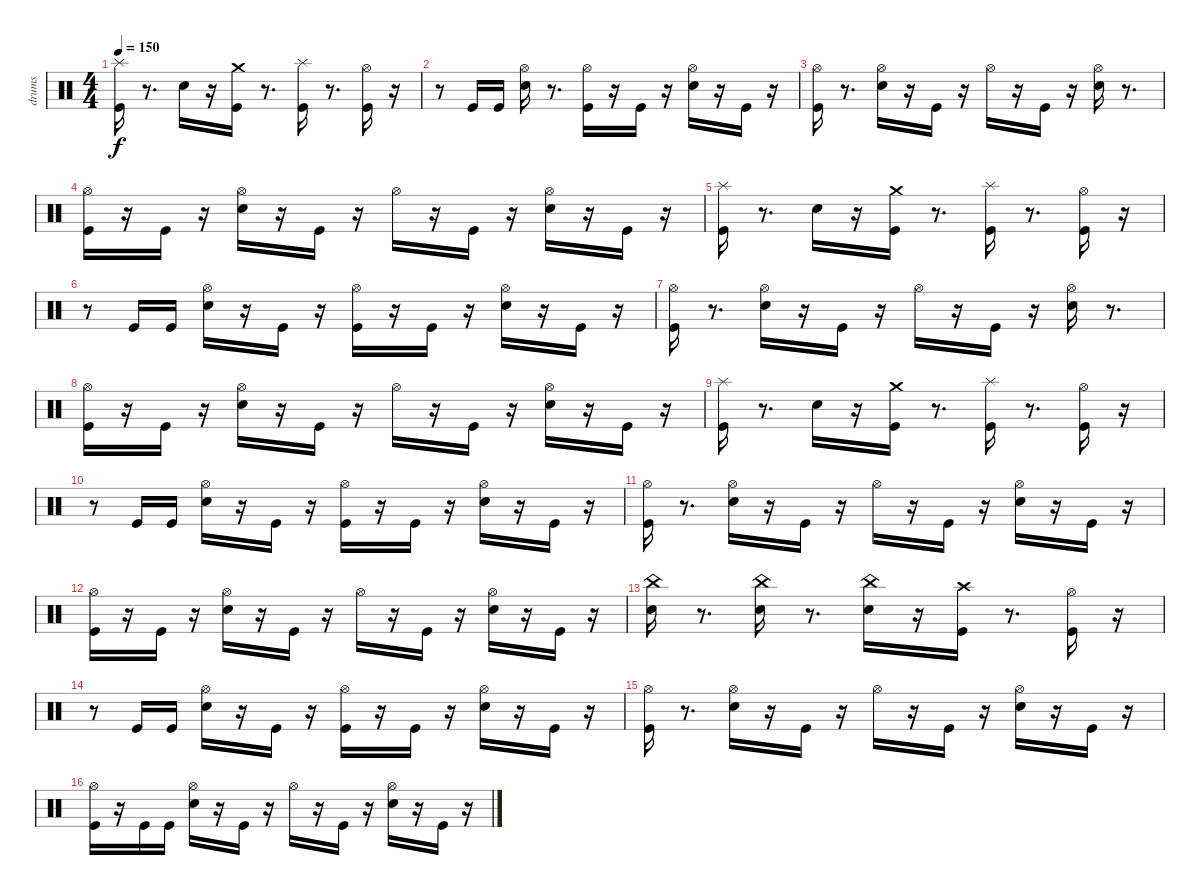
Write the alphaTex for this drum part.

\track ("drums" "drums") {instrument percussion}
\staff {score}
\articulation defaults
\ts (4 4)
\tempo 150
\clef neutral
\ks c
("Splash (hit)" "Kick (hit)").16{dy f} r.8{d} "Electric Snare (hit)".16 r.16 ("Crash medium (hit)" "Kick (hit)").16 r.8{d} ("Splash (hit)" "Kick (hit)").16 r.8{d} ("Hi-Hat (open)" "Kick (hit)").16 r.16 |
r.8 "Kick (hit)".16 "Kick (hit)".16 ("Electric Snare (hit)" "Hi-Hat (open)").16 r.8{d} ("Kick (hit)" "Hi-Hat (open)").16 r.16 "Kick (hit)".16 r.16 ("Electric Snare (hit)" "Hi-Hat (open)").16 r.16 "Kick (hit)".16 r.16 |
("Hi-Hat (open)" "Kick (hit)").16 r.8{d} ("Hi-Hat (open)" "Electric Snare (hit)").16 r.16 "Kick (hit)".16 r.16 "Hi-Hat (open)".16 r.16 "Kick (hit)".16 r.16 ("Hi-Hat (open)" "Electric Snare (hit)").16 r.8{d} |
("Hi-Hat (open)" "Kick (hit)").16 r.16 "Kick (hit)".16 r.16 ("Electric Snare (hit)" "Hi-Hat (open)").16 r.16 "Kick (hit)".16 r.16 "Hi-Hat (open)".16 r.16 "Kick (hit)".16 r.16 ("Electric Snare (hit)" "Hi-Hat (open)").16 r.16 "Kick (hit)".16 r.16 |
("Splash (hit)" "Kick (hit)").16 r.8{d} "Electric Snare (hit)".16 r.16 ("Crash medium (hit)" "Kick (hit)").16 r.8{d} ("Splash (hit)" "Kick (hit)").16 r.8{d} ("Hi-Hat (open)" "Kick (hit)").16 r.16 |
r.8 "Kick (hit)".16 "Kick (hit)".16 ("Electric Snare (hit)" "Hi-Hat (open)").16 r.16 "Kick (hit)".16 r.16 ("Kick (hit)" "Hi-Hat (open)").16 r.16 "Kick (hit)".16 r.16 ("Electric Snare (hit)" "Hi-Hat (open)").16 r.16 "Kick (hit)".16 r.16 |
("Hi-Hat (open)" "Kick (hit)").16 r.8{d} ("Hi-Hat (open)" "Electric Snare (hit)").16 r.16 "Kick (hit)".16 r.16 "Hi-Hat (open)".16 r.16 "Kick (hit)".16 r.16 ("Hi-Hat (open)" "Electric Snare (hit)").16 r.8{d} |
("Hi-Hat (open)" "Kick (hit)").16 r.16 "Kick (hit)".16 r.16 ("Electric Snare (hit)" "Hi-Hat (open)").16 r.16 "Kick (hit)".16 r.16 "Hi-Hat (open)".16 r.16 "Kick (hit)".16 r.16 ("Electric Snare (hit)" "Hi-Hat (open)").16 r.16 "Kick (hit)".16 r.16 |
("Splash (hit)" "Kick (hit)").16 r.8{d} "Electric Snare (hit)".16 r.16 ("Crash medium (hit)" "Kick (hit)").16 r.8{d} ("Splash (hit)" "Kick (hit)").16 r.8{d} ("Hi-Hat (open)" "Kick (hit)").16 r.16 |
r.8 "Kick (hit)".16 "Kick (hit)".16 ("Electric Snare (hit)" "Hi-Hat (open)").16 r.16 "Kick (hit)".16 r.16 ("Kick (hit)" "Hi-Hat (open)").16 r.16 "Kick (hit)".16 r.16 ("Electric Snare (hit)" "Hi-Hat (open)").16 r.16 "Kick (hit)".16 r.16 |
("Hi-Hat (open)" "Kick (hit)").16 r.8{d} ("Hi-Hat (open)" "Electric Snare (hit)").16 r.16 "Kick (hit)".16 r.16 "Hi-Hat (open)".16 r.16 "Kick (hit)".16 r.16 ("Hi-Hat (open)" "Electric Snare (hit)").16 r.16 "Kick (hit)".16 r.16 |
("Hi-Hat (open)" "Kick (hit)").16 r.16 "Kick (hit)".16 r.16 ("Electric Snare (hit)" "Hi-Hat (open)").16 r.16 "Kick (hit)".16 r.16 "Hi-Hat (open)".16 r.16 "Kick (hit)".16 r.16 ("Electric Snare (hit)" "Hi-Hat (open)").16 r.16 "Kick (hit)".16 r.16 |
("China (hit)" "Electric Snare (hit)").16 r.8{d} ("China (hit)" "Electric Snare (hit)").16 r.8{d} ("China (hit)" "Electric Snare (hit)").16 r.16 ("Crash high (hit)" "Kick (hit)").16 r.8{d} ("Hi-Hat (open)" "Kick (hit)").16 r.16 |
r.8 "Kick (hit)".16 "Kick (hit)".16 ("Electric Snare (hit)" "Hi-Hat (open)").16 r.16 "Kick (hit)".16 r.16 ("Kick (hit)" "Hi-Hat (open)").16 r.16 "Kick (hit)".16 r.16 ("Electric Snare (hit)" "Hi-Hat (open)").16 r.16 "Kick (hit)".16 r.16 |
("Hi-Hat (open)" "Kick (hit)").16 r.8{d} ("Hi-Hat (open)" "Electric Snare (hit)").16 r.16 "Kick (hit)".16 r.16 "Hi-Hat (open)".16 r.16 "Kick (hit)".16 r.16 ("Hi-Hat (open)" "Electric Snare (hit)").16 r.16 "Kick (hit)".16 r.16 |
("Hi-Hat (open)" "Kick (hit)").16 r.16 "Kick (hit)".16 "Kick (hit)".16 ("Electric Snare (hit)" "Hi-Hat (open)").16 r.16 "Kick (hit)".16 r.16 "Hi-Hat (open)".16 r.16 "Kick (hit)".16 r.16 ("Electric Snare (hit)" "Hi-Hat (open)").16 r.16 "Kick (hit)".16 r.16
